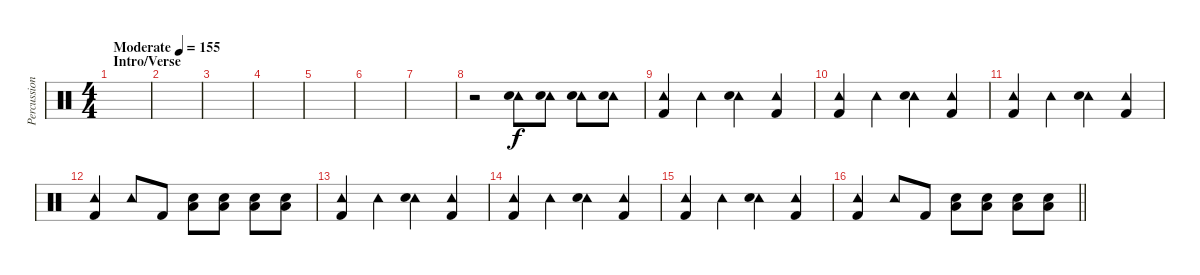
\track ("Percussion" "Percussion") {instrument percussion}
\staff {score}
\articulation defaults
\ts (4 4)
\section ("" "Intro/Verse")
\tempo (155 "Moderate")
\clef neutral
\ks c
|
|
|
|
|
|
|
r.2 ("Tambourine (hit)" "Electric Snare (hit)").8 ("Tambourine (hit)" "Electric Snare (hit)").8 ("Tambourine (hit)" "Electric Snare (hit)").8 ("Tambourine (hit)" "Electric Snare (hit)").8 |
("Tambourine (hit)" "Kick (hit) 2").4 "Tambourine (hit)".4 ("Tambourine (hit)" "Electric Snare (hit)").4 ("Tambourine (hit)" "Kick (hit) 2").4 |
("Tambourine (hit)" "Kick (hit) 2").4 "Tambourine (hit)".4 ("Tambourine (hit)" "Electric Snare (hit)").4 ("Tambourine (hit)" "Kick (hit) 2").4 |
("Tambourine (hit)" "Kick (hit) 2").4 "Tambourine (hit)".4 ("Tambourine (hit)" "Electric Snare (hit)").4 ("Tambourine (hit)" "Kick (hit) 2").4 |
("Tambourine (hit)" "Kick (hit) 2").4 "Tambourine (hit)".8 "Kick (hit) 2".8 ("Low Floor Tom (hit)" "Electric Snare (hit)").8 ("Low Floor Tom (hit)" "Electric Snare (hit)").8 ("Low Floor Tom (hit)" "Electric Snare (hit)").8 ("Low Floor Tom (hit)" "Electric Snare (hit)").8 |
("Tambourine (hit)" "Kick (hit) 2").4 "Tambourine (hit)".4 ("Tambourine (hit)" "Electric Snare (hit)").4 ("Tambourine (hit)" "Kick (hit) 2").4 |
("Tambourine (hit)" "Kick (hit) 2").4 "Tambourine (hit)".4 ("Tambourine (hit)" "Electric Snare (hit)").4 ("Tambourine (hit)" "Kick (hit) 2").4 |
("Tambourine (hit)" "Kick (hit) 2").4 "Tambourine (hit)".4 ("Tambourine (hit)" "Electric Snare (hit)").4 ("Tambourine (hit)" "Kick (hit) 2").4 |
\barLineRight lightlight
("Tambourine (hit)" "Kick (hit) 2").4 "Tambourine (hit)".8 "Kick (hit) 2".8 ("Low Floor Tom (hit)" "Electric Snare (hit)").8 ("Low Floor Tom (hit)" "Electric Snare (hit)").8 ("Low Floor Tom (hit)" "Electric Snare (hit)").8 ("Low Floor Tom (hit)" "Electric Snare (hit)").8
